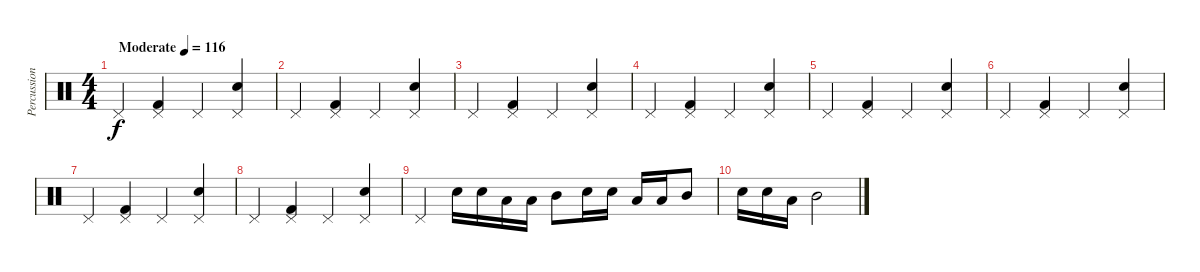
\track ("Percussion" "Percussion") {instrument percussion}
\staff {score}
\articulation defaults
\ts (4 4)
\tempo (116 "Moderate")
\clef neutral
\ks c "Pedal Hi-Hat (hit)".4{dy f}
("Kick (hit) 2" "Pedal Hi-Hat (hit)").4 "Pedal Hi-Hat (hit)".4 ("Snare (hit) 2" "Pedal Hi-Hat (hit)").4 |
"Pedal Hi-Hat (hit)".4 ("Kick (hit) 2" "Pedal Hi-Hat (hit)").4 "Pedal Hi-Hat (hit)".4 ("Snare (hit) 2" "Pedal Hi-Hat (hit)").4 |
"Pedal Hi-Hat (hit)".4 ("Kick (hit) 2" "Pedal Hi-Hat (hit)").4 "Pedal Hi-Hat (hit)".4 ("Snare (hit) 2" "Pedal Hi-Hat (hit)").4 |
"Pedal Hi-Hat (hit)".4 ("Kick (hit) 2" "Pedal Hi-Hat (hit)").4 "Pedal Hi-Hat (hit)".4 ("Snare (hit) 2" "Pedal Hi-Hat (hit)").4 |
"Pedal Hi-Hat (hit)".4 ("Kick (hit) 2" "Pedal Hi-Hat (hit)").4 "Pedal Hi-Hat (hit)".4 ("Snare (hit) 2" "Pedal Hi-Hat (hit)").4 |
"Pedal Hi-Hat (hit)".4 ("Kick (hit) 2" "Pedal Hi-Hat (hit)").4 "Pedal Hi-Hat (hit)".4 ("Snare (hit) 2" "Pedal Hi-Hat (hit)").4 |
"Pedal Hi-Hat (hit)".4 ("Kick (hit) 2" "Pedal Hi-Hat (hit)").4 "Pedal Hi-Hat (hit)".4 ("Snare (hit) 2" "Pedal Hi-Hat (hit)").4 |
"Pedal Hi-Hat (hit)".4 ("Kick (hit) 2" "Pedal Hi-Hat (hit)").4 "Pedal Hi-Hat (hit)".4 ("Snare (hit) 2" "Pedal Hi-Hat (hit)").4 |
"Pedal Hi-Hat (hit)".4 "Snare (hit) 2".16 "Snare (hit) 2".16 "Low Tom (hit)".16 "Low Tom (hit)".16 "Mid Tom (hit)".8 "Snare (hit) 2".16 "Snare (hit) 2".16 "Low Tom (hit)".16 "Low Tom (hit)".16 "Mid Tom (hit)".8 |
"Snare (hit) 2".16 "Snare (hit) 2".16 "Low Tom (hit)".16 "Mid Tom (hit)".2
